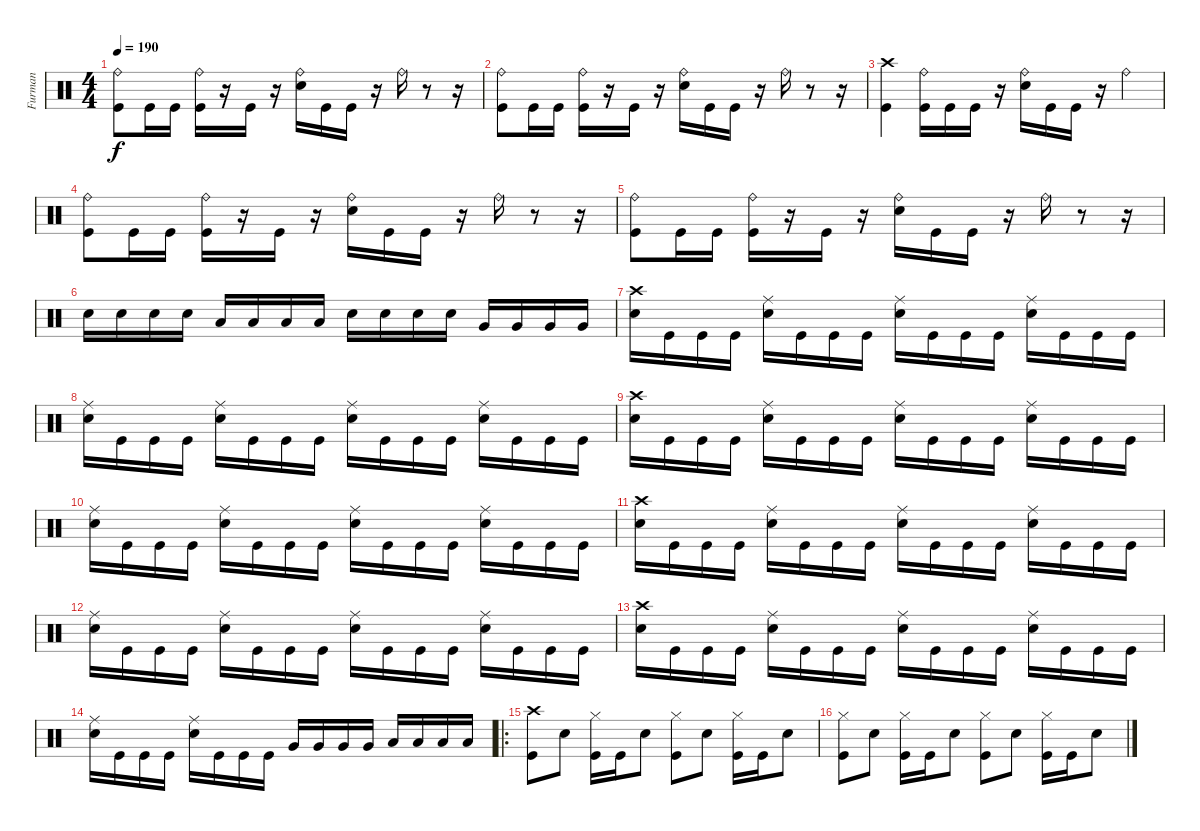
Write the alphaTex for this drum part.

\track ("Furman" "Furman") {instrument percussion}
\staff {score}
\articulation defaults
\ts (4 4)
\tempo 190
\clef neutral
\ks c
("Ride (bell)" "Kick (hit)").8{dy f} "Kick (hit)".16 "Kick (hit)".16 ("Ride (bell)" "Kick (hit)").16 r.16 "Kick (hit)".16 r.16 ("Ride (bell)" "Electric Snare (hit)").16 "Kick (hit)".16 "Kick (hit)".16 r.16 "Ride (bell)".16 r.8 r.16 |
("Ride (bell)" "Kick (hit)").8 "Kick (hit)".16 "Kick (hit)".16 ("Ride (bell)" "Kick (hit)").16 r.16 "Kick (hit)".16 r.16 ("Ride (bell)" "Electric Snare (hit)").16 "Kick (hit)".16 "Kick (hit)".16 r.16 "Ride (bell)".16 r.8 r.16 |
("Crash high (hit)" "Kick (hit)").4 ("Ride (bell)" "Kick (hit)").16 "Kick (hit)".16 "Kick (hit)".16 r.16 ("Ride (bell)" "Electric Snare (hit)").16 "Kick (hit)".16 "Kick (hit)".16 r.16 "Ride (bell)".4 |
("Ride (bell)" "Kick (hit)").8 "Kick (hit)".16 "Kick (hit)".16 ("Ride (bell)" "Kick (hit)").16 r.16 "Kick (hit)".16 r.16 ("Ride (bell)" "Electric Snare (hit)").16 "Kick (hit)".16 "Kick (hit)".16 r.16 "Ride (bell)".16 r.8 r.16 |
("Ride (bell)" "Kick (hit)").8 "Kick (hit)".16 "Kick (hit)".16 ("Ride (bell)" "Kick (hit)").16 r.16 "Kick (hit)".16 r.16 ("Ride (bell)" "Electric Snare (hit)").16 "Kick (hit)".16 "Kick (hit)".16 r.16 "Ride (bell)".16 r.8 r.16 |
"Electric Snare (hit)".16 "Electric Snare (hit)".16 "Electric Snare (hit)".16 "Electric Snare (hit)".16 "Low Tom (hit)".16 "Low Tom (hit)".16 "Low Tom (hit)".16 "Low Tom (hit)".16 "Electric Snare (hit)".16 "Electric Snare (hit)".16 "Electric Snare (hit)".16 "Electric Snare (hit)".16 "Very Low Tom (hit)".16 "Very Low Tom (hit)".16 "Very Low Tom (hit)".16 "Very Low Tom (hit)".16 |
("Crash high (hit)" "Electric Snare (hit)").16 "Kick (hit)".16 "Kick (hit)".16 "Kick (hit)".16 ("Ride (middle)" "Electric Snare (hit)").16 "Kick (hit)".16 "Kick (hit)".16 "Kick (hit)".16 ("Ride (middle)" "Electric Snare (hit)").16 "Kick (hit)".16 "Kick (hit)".16 "Kick (hit)".16 ("Ride (middle)" "Electric Snare (hit)").16 "Kick (hit)".16 "Kick (hit)".16 "Kick (hit)".16 |
("Ride (middle)" "Electric Snare (hit)").16 "Kick (hit)".16 "Kick (hit)".16 "Kick (hit)".16 ("Ride (middle)" "Electric Snare (hit)").16 "Kick (hit)".16 "Kick (hit)".16 "Kick (hit)".16 ("Ride (middle)" "Electric Snare (hit)").16 "Kick (hit)".16 "Kick (hit)".16 "Kick (hit)".16 ("Ride (middle)" "Electric Snare (hit)").16 "Kick (hit)".16 "Kick (hit)".16 "Kick (hit)".16 |
("Crash high (hit)" "Electric Snare (hit)").16 "Kick (hit)".16 "Kick (hit)".16 "Kick (hit)".16 ("Ride (middle)" "Electric Snare (hit)").16 "Kick (hit)".16 "Kick (hit)".16 "Kick (hit)".16 ("Ride (middle)" "Electric Snare (hit)").16 "Kick (hit)".16 "Kick (hit)".16 "Kick (hit)".16 ("Ride (middle)" "Electric Snare (hit)").16 "Kick (hit)".16 "Kick (hit)".16 "Kick (hit)".16 |
("Ride (middle)" "Electric Snare (hit)").16 "Kick (hit)".16 "Kick (hit)".16 "Kick (hit)".16 ("Ride (middle)" "Electric Snare (hit)").16 "Kick (hit)".16 "Kick (hit)".16 "Kick (hit)".16 ("Ride (middle)" "Electric Snare (hit)").16 "Kick (hit)".16 "Kick (hit)".16 "Kick (hit)".16 ("Ride (middle)" "Electric Snare (hit)").16 "Kick (hit)".16 "Kick (hit)".16 "Kick (hit)".16 |
("Crash high (hit)" "Electric Snare (hit)").16 "Kick (hit)".16 "Kick (hit)".16 "Kick (hit)".16 ("Ride (middle)" "Electric Snare (hit)").16 "Kick (hit)".16 "Kick (hit)".16 "Kick (hit)".16 ("Ride (middle)" "Electric Snare (hit)").16 "Kick (hit)".16 "Kick (hit)".16 "Kick (hit)".16 ("Ride (middle)" "Electric Snare (hit)").16 "Kick (hit)".16 "Kick (hit)".16 "Kick (hit)".16 |
("Ride (middle)" "Electric Snare (hit)").16 "Kick (hit)".16 "Kick (hit)".16 "Kick (hit)".16 ("Ride (middle)" "Electric Snare (hit)").16 "Kick (hit)".16 "Kick (hit)".16 "Kick (hit)".16 ("Ride (middle)" "Electric Snare (hit)").16 "Kick (hit)".16 "Kick (hit)".16 "Kick (hit)".16 ("Ride (middle)" "Electric Snare (hit)").16 "Kick (hit)".16 "Kick (hit)".16 "Kick (hit)".16 |
("Crash high (hit)" "Electric Snare (hit)").16 "Kick (hit)".16 "Kick (hit)".16 "Kick (hit)".16 ("Ride (middle)" "Electric Snare (hit)").16 "Kick (hit)".16 "Kick (hit)".16 "Kick (hit)".16 ("Ride (middle)" "Electric Snare (hit)").16 "Kick (hit)".16 "Kick (hit)".16 "Kick (hit)".16 ("Ride (middle)" "Electric Snare (hit)").16 "Kick (hit)".16 "Kick (hit)".16 "Kick (hit)".16 |
("Ride (middle)" "Electric Snare (hit)").16 "Kick (hit)".16 "Kick (hit)".16 "Kick (hit)".16 ("Ride (middle)" "Electric Snare (hit)").16 "Kick (hit)".16 "Kick (hit)".16 "Kick (hit)".16 "Very Low Tom (hit)".16 "Very Low Tom (hit)".16 "Very Low Tom (hit)".16 "Very Low Tom (hit)".16 "Low Floor Tom (hit)".16 "Low Floor Tom (hit)".16 "Low Floor Tom (hit)".16 "Low Floor Tom (hit)".16 |
\ro
("Crash high (hit)" "Kick (hit)").8 "Electric Snare (hit)".8 ("Hi-Hat (closed)" "Kick (hit)").16 "Kick (hit)".16 "Electric Snare (hit)".8 ("Hi-Hat (closed)" "Kick (hit)").8 "Electric Snare (hit)".8 ("Hi-Hat (closed)" "Kick (hit)").16 "Kick (hit)".16 "Electric Snare (hit)".8 |
("Hi-Hat (closed)" "Kick (hit)").8 "Electric Snare (hit)".8 ("Hi-Hat (closed)" "Kick (hit)").16 "Kick (hit)".16 "Electric Snare (hit)".8 ("Hi-Hat (closed)" "Kick (hit)").8 "Electric Snare (hit)".8 ("Hi-Hat (closed)" "Kick (hit)").16 "Kick (hit)".16 "Electric Snare (hit)".8
